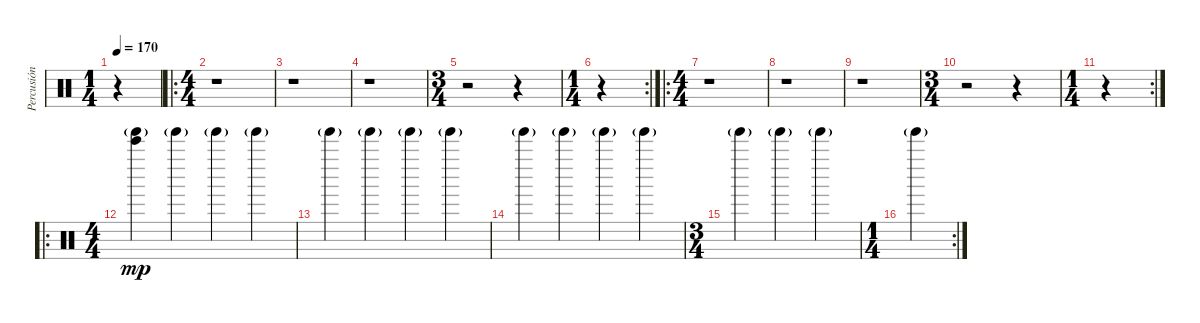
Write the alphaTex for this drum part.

\track ("Percusión" "Percusión") {instrument percussion}
\staff {score}
\articulation defaults
\ts (1 4)
\tempo 170
\tempo 120
\tempo 170
\clef neutral
\ks c
r.4{dy mp} |
\ro
\ts (4 4)
r.1 |
r.1 |
r.1 |
\ts (3 4)
r.2 r.4 |
\rc 2
\ts (1 4)
r.4 |
\ro
\ts (4 4)
r.1 |
r.1 |
r.1 |
\ts (3 4)
r.2 r.4 |
\rc 2
\ts (1 4)
r.4 |
\ro
\ts (4 4)
("Bell Tree (hit)" "Tinkle Bell (hit)"{g}).4{volume 10} "Tinkle Bell (hit)"{g}.4 "Tinkle Bell (hit)"{g}.4 "Tinkle Bell (hit)"{g}.4 |
"Tinkle Bell (hit)"{g}.4 "Tinkle Bell (hit)"{g}.4 "Tinkle Bell (hit)"{g}.4 "Tinkle Bell (hit)"{g}.4 |
"Tinkle Bell (hit)"{g}.4 "Tinkle Bell (hit)"{g}.4 "Tinkle Bell (hit)"{g}.4 "Tinkle Bell (hit)"{g}.4 |
\ts (3 4)
"Tinkle Bell (hit)"{g}.4 "Tinkle Bell (hit)"{g}.4 "Tinkle Bell (hit)"{g}.4 |
\rc 2
\ts (1 4)
"Tinkle Bell (hit)"{g}.4
